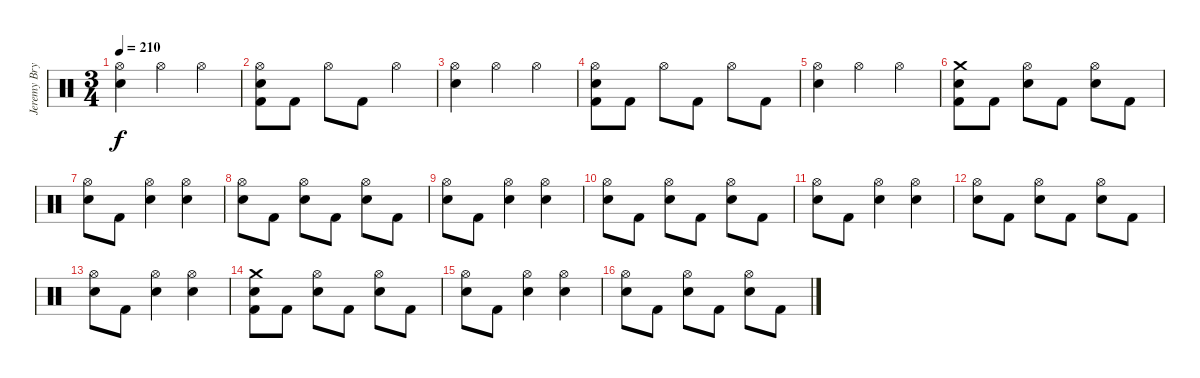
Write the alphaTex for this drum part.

\track ("Jeremy Bryan - Drums" "Jeremy Bry") {instrument percussion}
\staff {score}
\articulation defaults
\ts (3 4)
\tempo 210
\clef neutral
\ks c
("Hi-Hat (open)" "Electric Snare (hit)").4{dy f} "Hi-Hat (open)".4 "Hi-Hat (open)".4 |
("Hi-Hat (open)" "Electric Snare (hit)" "Kick (hit) 2").8 "Kick (hit) 2".8 "Hi-Hat (open)".8 "Kick (hit) 2".8 "Hi-Hat (open)".4 |
("Hi-Hat (open)" "Electric Snare (hit)").4 "Hi-Hat (open)".4 "Hi-Hat (open)".4 |
("Hi-Hat (open)" "Electric Snare (hit)" "Kick (hit) 2").8 "Kick (hit) 2".8 "Hi-Hat (open)".8 "Kick (hit) 2".8 "Hi-Hat (open)".8 "Kick (hit) 2".8 |
("Hi-Hat (open)" "Electric Snare (hit)").4 "Hi-Hat (open)".4 "Hi-Hat (open)".4 |
("Crash medium (hit)" "Electric Snare (hit)" "Kick (hit) 2").8 "Kick (hit) 2".8 ("Hi-Hat (open)" "Electric Snare (hit)").8 "Kick (hit) 2".8 ("Hi-Hat (open)" "Electric Snare (hit)").8 "Kick (hit) 2".8 |
("Hi-Hat (open)" "Electric Snare (hit)").8 "Kick (hit) 2".8 ("Hi-Hat (open)" "Electric Snare (hit)").4 ("Hi-Hat (open)" "Electric Snare (hit)").4 |
("Hi-Hat (open)" "Electric Snare (hit)").8 "Kick (hit) 2".8 ("Hi-Hat (open)" "Electric Snare (hit)").8 "Kick (hit) 2".8 ("Hi-Hat (open)" "Electric Snare (hit)").8 "Kick (hit) 2".8 |
("Hi-Hat (open)" "Electric Snare (hit)").8 "Kick (hit) 2".8 ("Hi-Hat (open)" "Electric Snare (hit)").4 ("Hi-Hat (open)" "Electric Snare (hit)").4 |
("Hi-Hat (open)" "Electric Snare (hit)").8 "Kick (hit) 2".8 ("Hi-Hat (open)" "Electric Snare (hit)").8 "Kick (hit) 2".8 ("Hi-Hat (open)" "Electric Snare (hit)").8 "Kick (hit) 2".8 |
("Hi-Hat (open)" "Electric Snare (hit)").8 "Kick (hit) 2".8 ("Hi-Hat (open)" "Electric Snare (hit)").4 ("Hi-Hat (open)" "Electric Snare (hit)").4 |
("Hi-Hat (open)" "Electric Snare (hit)").8 "Kick (hit) 2".8 ("Hi-Hat (open)" "Electric Snare (hit)").8 "Kick (hit) 2".8 ("Hi-Hat (open)" "Electric Snare (hit)").8 "Kick (hit) 2".8 |
("Hi-Hat (open)" "Electric Snare (hit)").8 "Kick (hit) 2".8 ("Hi-Hat (open)" "Electric Snare (hit)").4 ("Hi-Hat (open)" "Electric Snare (hit)").4 |
("Crash medium (hit)" "Electric Snare (hit)" "Kick (hit) 2").8 "Kick (hit) 2".8 ("Hi-Hat (open)" "Electric Snare (hit)").8 "Kick (hit) 2".8 ("Hi-Hat (open)" "Electric Snare (hit)").8 "Kick (hit) 2".8 |
("Hi-Hat (open)" "Electric Snare (hit)").8 "Kick (hit) 2".8 ("Hi-Hat (open)" "Electric Snare (hit)").4 ("Hi-Hat (open)" "Electric Snare (hit)").4 |
("Hi-Hat (open)" "Electric Snare (hit)").8 "Kick (hit) 2".8 ("Hi-Hat (open)" "Electric Snare (hit)").8 "Kick (hit) 2".8 ("Hi-Hat (open)" "Electric Snare (hit)").8 "Kick (hit) 2".8
